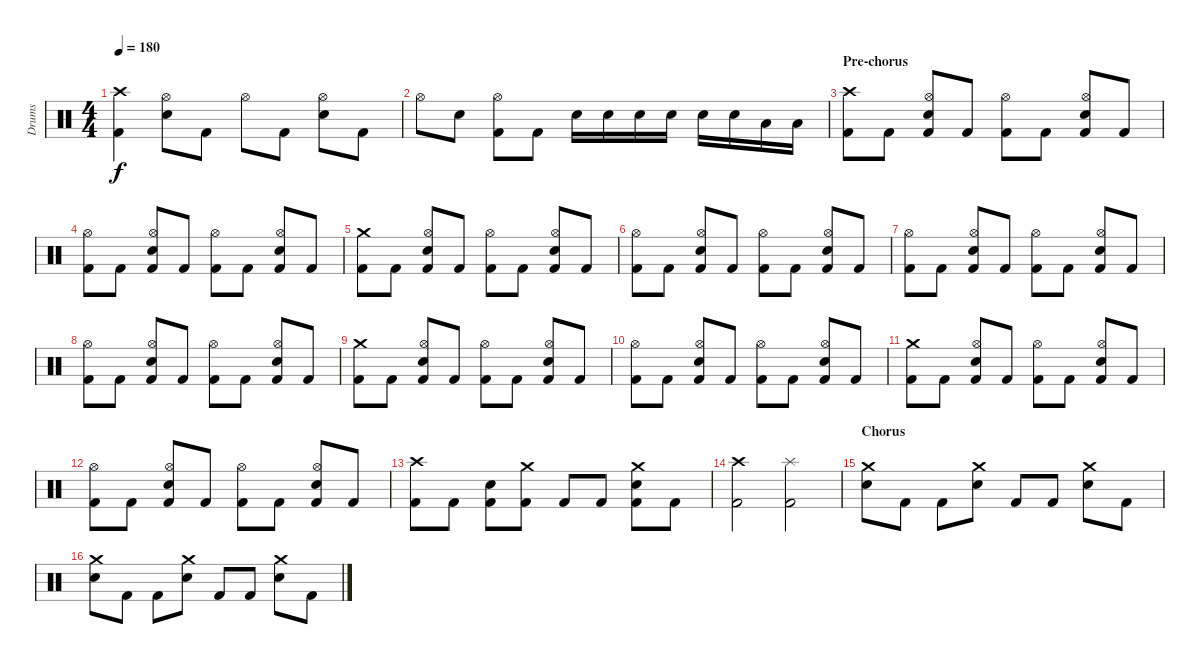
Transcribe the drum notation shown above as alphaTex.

\track ("Drums" "Drums") {instrument percussion}
\staff {score}
\articulation defaults
\ts (4 4)
\tempo 180
\clef neutral
\ks c
("Crash high (hit)" "Kick (hit) 2").4{dy f} ("Hi-Hat (open)" "Electric Snare (hit)").8 "Kick (hit) 2".8 "Hi-Hat (open)".8 "Kick (hit) 2".8 ("Hi-Hat (open)" "Electric Snare (hit)").8 "Kick (hit) 2".8 |
"Hi-Hat (open)".8 "Electric Snare (hit)".8 ("Hi-Hat (open)" "Kick (hit) 2").8 "Kick (hit) 2".8 "Snare (hit) 2".16 "Snare (hit) 2".16 "Snare (hit) 2".16 "Snare (hit) 2".16 "Snare (hit) 2".16 "Electric Snare (hit)".16 "Low Tom (hit)".16 "Low Tom (hit)".16 |
\section ("" "Pre-chorus")
("Crash high (hit)" "Kick (hit) 2").8 "Kick (hit) 2".8 ("Hi-Hat (open)" "Electric Snare (hit)" "Kick (hit) 2").8 "Kick (hit) 2".8 ("Hi-Hat (open)" "Kick (hit) 2").8 "Kick (hit) 2".8 ("Hi-Hat (open)" "Electric Snare (hit)" "Kick (hit) 2").8 "Kick (hit) 2".8 |
("Hi-Hat (open)" "Kick (hit) 2").8 "Kick (hit) 2".8 ("Hi-Hat (open)" "Electric Snare (hit)" "Kick (hit) 2").8 "Kick (hit) 2".8 ("Hi-Hat (open)" "Kick (hit) 2").8 "Kick (hit) 2".8 ("Hi-Hat (open)" "Electric Snare (hit)" "Kick (hit) 2").8 "Kick (hit) 2".8 |
("Crash medium (hit)" "Kick (hit) 2").8 "Kick (hit) 2".8 ("Hi-Hat (open)" "Electric Snare (hit)" "Kick (hit) 2").8 "Kick (hit) 2".8 ("Hi-Hat (open)" "Kick (hit) 2").8 "Kick (hit) 2".8 ("Hi-Hat (open)" "Electric Snare (hit)" "Kick (hit) 2").8 "Kick (hit) 2".8 |
("Hi-Hat (open)" "Kick (hit) 2").8 "Kick (hit) 2".8 ("Hi-Hat (open)" "Electric Snare (hit)" "Kick (hit) 2").8 "Kick (hit) 2".8 ("Hi-Hat (open)" "Kick (hit) 2").8 "Kick (hit) 2".8 ("Hi-Hat (open)" "Electric Snare (hit)" "Kick (hit) 2").8 "Kick (hit) 2".8 |
("Hi-Hat (open)" "Kick (hit) 2").8 "Kick (hit) 2".8 ("Hi-Hat (open)" "Electric Snare (hit)" "Kick (hit) 2").8 "Kick (hit) 2".8 ("Hi-Hat (open)" "Kick (hit) 2").8 "Kick (hit) 2".8 ("Hi-Hat (open)" "Electric Snare (hit)" "Kick (hit) 2").8 "Kick (hit) 2".8 |
("Hi-Hat (open)" "Kick (hit) 2").8 "Kick (hit) 2".8 ("Hi-Hat (open)" "Electric Snare (hit)" "Kick (hit) 2").8 "Kick (hit) 2".8 ("Hi-Hat (open)" "Kick (hit) 2").8 "Kick (hit) 2".8 ("Hi-Hat (open)" "Electric Snare (hit)" "Kick (hit) 2").8 "Kick (hit) 2".8 |
("Crash medium (hit)" "Kick (hit) 2").8 "Kick (hit) 2".8 ("Hi-Hat (open)" "Electric Snare (hit)" "Kick (hit) 2").8 "Kick (hit) 2".8 ("Hi-Hat (open)" "Kick (hit) 2").8 "Kick (hit) 2".8 ("Hi-Hat (open)" "Electric Snare (hit)" "Kick (hit) 2").8 "Kick (hit) 2".8 |
("Hi-Hat (open)" "Kick (hit) 2").8 "Kick (hit) 2".8 ("Hi-Hat (open)" "Electric Snare (hit)" "Kick (hit) 2").8 "Kick (hit) 2".8 ("Hi-Hat (open)" "Kick (hit) 2").8 "Kick (hit) 2".8 ("Hi-Hat (open)" "Electric Snare (hit)" "Kick (hit) 2").8 "Kick (hit) 2".8 |
("Crash medium (hit)" "Kick (hit) 2").8 "Kick (hit) 2".8 ("Hi-Hat (open)" "Electric Snare (hit)" "Kick (hit) 2").8 "Kick (hit) 2".8 ("Hi-Hat (open)" "Kick (hit) 2").8 "Kick (hit) 2".8 ("Hi-Hat (open)" "Electric Snare (hit)" "Kick (hit) 2").8 "Kick (hit) 2".8 |
("Hi-Hat (open)" "Kick (hit) 2").8 "Kick (hit) 2".8 ("Hi-Hat (open)" "Electric Snare (hit)" "Kick (hit) 2").8 "Kick (hit) 2".8 ("Hi-Hat (open)" "Kick (hit) 2").8 "Kick (hit) 2".8 ("Hi-Hat (open)" "Electric Snare (hit)" "Kick (hit) 2").8 "Kick (hit) 2".8 |
("Crash high (hit)" "Kick (hit) 2").8 "Kick (hit) 2".8 ("Electric Snare (hit)" "Kick (hit) 2").8 ("Crash medium (hit)" "Kick (hit) 2").8 "Kick (hit) 2".8 "Kick (hit) 2".8 ("Crash medium (hit)" "Electric Snare (hit)" "Kick (hit) 2").8 "Kick (hit) 2".8 |
("Crash high (hit)" "Kick (hit) 2").2 ("Splash (hit)" "Kick (hit) 2").2 |
\section ("" "Chorus")
("Crash medium (hit)" "Electric Snare (hit)").8 "Kick (hit) 2".8 "Kick (hit) 2".8 ("Crash medium (hit)" "Electric Snare (hit)").8 "Kick (hit) 2".8 "Kick (hit) 2".8 ("Crash medium (hit)" "Electric Snare (hit)").8 "Kick (hit) 2".8 |
("Crash medium (hit)" "Electric Snare (hit)").8 "Kick (hit) 2".8 "Kick (hit) 2".8 ("Crash medium (hit)" "Electric Snare (hit)").8 "Kick (hit) 2".8 "Kick (hit) 2".8 ("Crash medium (hit)" "Electric Snare (hit)").8 "Kick (hit) 2".8
